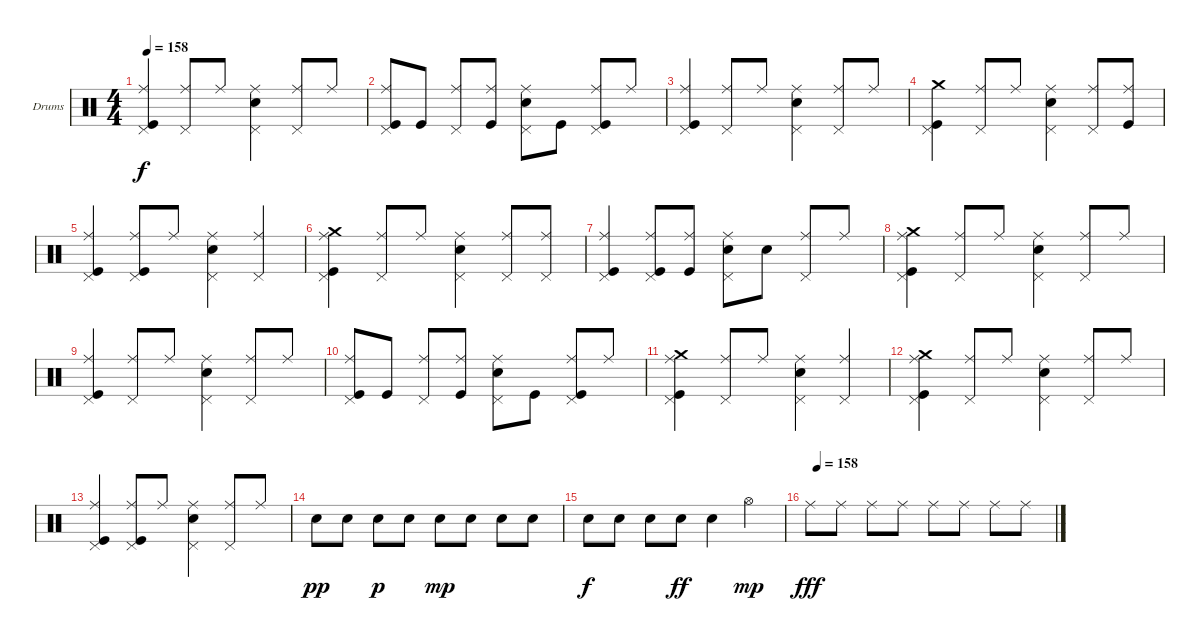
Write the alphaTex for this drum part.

\defaultSystemsLayout 4
\bracketExtendMode nobrackets
\firstSystemTrackNameOrientation horizontal
\otherSystemsTrackNameOrientation horizontal
\track ("Ударные" "Drums") {instrument percussion}
\staff {score}
\articulation defaults
\ts (4 4)
\tempo 158
\clef neutral
\ks c
("Ride (middle)" "Kick (hit)" "Pedal Hi-Hat (hit)").4{dy f} ("Ride (middle)" "Pedal Hi-Hat (hit)").8 "Ride (middle)".8 ("Ride (middle)" "Snare (hit) 2" "Pedal Hi-Hat (hit)").4 ("Ride (middle)" "Pedal Hi-Hat (hit)").8 "Ride (middle)".8 |
("Kick (hit)" "Ride (middle)" "Pedal Hi-Hat (hit)").8 "Kick (hit)".8 ("Ride (middle)" "Pedal Hi-Hat (hit)").8 ("Kick (hit)" "Ride (middle)").8 ("Snare (hit) 2" "Pedal Hi-Hat (hit)" "Ride (middle)").8 "Kick (hit)".8 ("Kick (hit)" "Pedal Hi-Hat (hit)" "Ride (middle)").8 "Ride (middle)".8 |
("Ride (middle)" "Kick (hit)" "Pedal Hi-Hat (hit)").4 ("Ride (middle)" "Pedal Hi-Hat (hit)").8 "Ride (middle)".8 ("Ride (middle)" "Snare (hit) 2" "Pedal Hi-Hat (hit)").4 ("Ride (middle)" "Pedal Hi-Hat (hit)").8 "Ride (middle)".8 |
("Crash medium (hit)" "Kick (hit)" "Pedal Hi-Hat (hit)").4 ("Ride (middle)" "Pedal Hi-Hat (hit)").8 "Ride (middle)".8 ("Ride (middle)" "Snare (hit) 2" "Pedal Hi-Hat (hit)").4 ("Ride (middle)" "Pedal Hi-Hat (hit)").8 ("Kick (hit)" "Ride (middle)").8 |
("Ride (middle)" "Kick (hit)" "Pedal Hi-Hat (hit)").4 ("Ride (middle)" "Kick (hit)" "Pedal Hi-Hat (hit)").8 "Ride (middle)".8 ("Ride (middle)" "Snare (hit) 2" "Pedal Hi-Hat (hit)").4 ("Ride (middle)" "Pedal Hi-Hat (hit)").4 |
("Kick (hit)" "Crash medium (hit)" "Ride (middle)" "Pedal Hi-Hat (hit)").4 ("Pedal Hi-Hat (hit)" "Ride (middle)").8 "Ride (middle)".8 ("Snare (hit) 2" "Ride (middle)" "Pedal Hi-Hat (hit)").4 ("Ride (middle)" "Pedal Hi-Hat (hit)").8 ("Pedal Hi-Hat (hit)" "Ride (middle)").8 |
("Pedal Hi-Hat (hit)" "Kick (hit)" "Ride (middle)").4 ("Kick (hit)" "Ride (middle)" "Pedal Hi-Hat (hit)").8 ("Kick (hit)" "Ride (middle)").8 ("Snare (hit) 2" "Ride (middle)" "Pedal Hi-Hat (hit)").8 "Snare (hit) 2".8 ("Ride (middle)" "Pedal Hi-Hat (hit)").8 "Ride (middle)".8 |
("Crash medium (hit)" "Kick (hit)" "Ride (middle)" "Pedal Hi-Hat (hit)").4 ("Ride (middle)" "Pedal Hi-Hat (hit)").8 "Ride (middle)".8 ("Ride (middle)" "Snare (hit) 2" "Pedal Hi-Hat (hit)").4 ("Ride (middle)" "Pedal Hi-Hat (hit)").8 "Ride (middle)".8 |
("Ride (middle)" "Kick (hit)" "Pedal Hi-Hat (hit)").4 ("Ride (middle)" "Pedal Hi-Hat (hit)").8 "Ride (middle)".8 ("Ride (middle)" "Snare (hit) 2" "Pedal Hi-Hat (hit)").4 ("Ride (middle)" "Pedal Hi-Hat (hit)").8 "Ride (middle)".8 |
("Kick (hit)" "Ride (middle)" "Pedal Hi-Hat (hit)").8 "Kick (hit)".8 ("Ride (middle)" "Pedal Hi-Hat (hit)").8 ("Kick (hit)" "Ride (middle)").8 ("Snare (hit) 2" "Pedal Hi-Hat (hit)" "Ride (middle)").8 "Kick (hit)".8 ("Kick (hit)" "Pedal Hi-Hat (hit)" "Ride (middle)").8 "Ride (middle)".8 |
("Crash medium (hit)" "Kick (hit)" "Pedal Hi-Hat (hit)" "Ride (middle)").4 ("Ride (middle)" "Pedal Hi-Hat (hit)").8 "Ride (middle)".8 ("Ride (middle)" "Snare (hit) 2" "Pedal Hi-Hat (hit)").4 ("Ride (middle)" "Pedal Hi-Hat (hit)").4 |
("Crash medium (hit)" "Kick (hit)" "Pedal Hi-Hat (hit)" "Ride (middle)").4 ("Ride (middle)" "Pedal Hi-Hat (hit)").8 "Ride (middle)".8 ("Ride (middle)" "Snare (hit) 2" "Pedal Hi-Hat (hit)").4 ("Ride (middle)" "Pedal Hi-Hat (hit)").8 "Ride (middle)".8 |
("Ride (middle)" "Kick (hit)" "Pedal Hi-Hat (hit)").4 ("Ride (middle)" "Kick (hit)" "Pedal Hi-Hat (hit)").8 "Ride (middle)".8 ("Ride (middle)" "Snare (hit) 2" "Pedal Hi-Hat (hit)").4 ("Ride (middle)" "Pedal Hi-Hat (hit)").8 "Ride (middle)".8 |
"Snare (hit) 2".8{dy pp} "Snare (hit) 2".8 "Snare (hit) 2".8{dy p} "Snare (hit) 2".8 "Snare (hit) 2".8{dy mp} "Snare (hit) 2".8 "Snare (hit) 2".8 "Snare (hit) 2".8 |
"Snare (hit) 2".8{dy f} "Snare (hit) 2".8 "Snare (hit) 2".8 "Snare (hit) 2".8{dy ff} "Snare (hit) 2".4 "Hi-Hat (open)".4{dy mp} |
\tempo (158 0.03125)
"Ride (middle)".8{dy fff} "Ride (middle)".8 "Ride (middle)".8 "Ride (middle)".8 "Ride (middle)".8 "Ride (middle)".8 "Ride (middle)".8 "Ride (middle)".8
